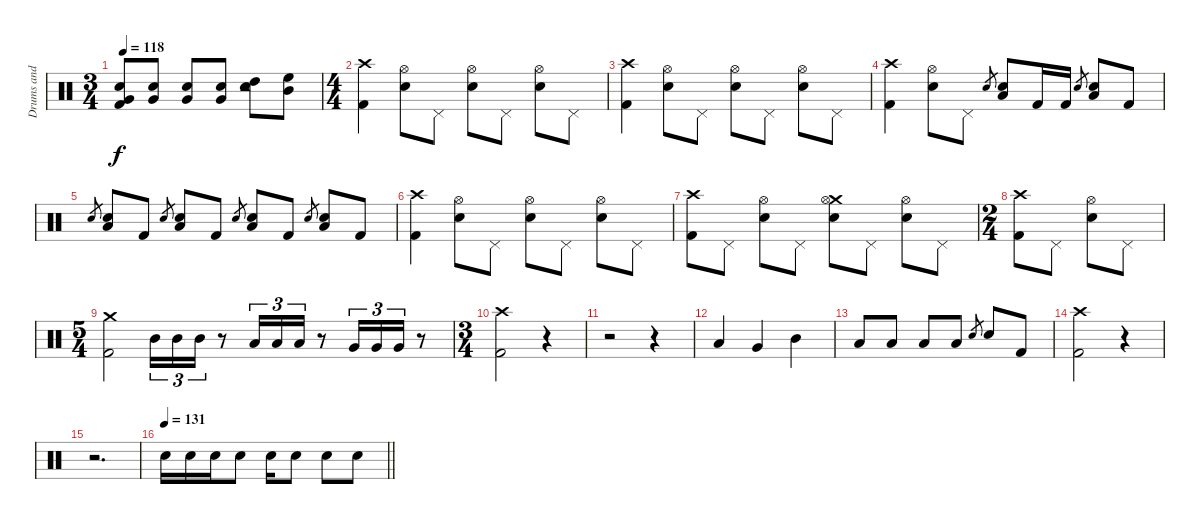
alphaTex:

\track ("Drums and percussion" "Drums and ") {instrument percussion}
\staff {score}
\articulation defaults
\ts (3 4)
\tempo 118
\clef neutral
\ks c
("Very Low Tom (hit)" "Snare (hit) 2" "Kick (hit) 2").8{dy f} ("Very Low Tom (hit)" "Snare (hit) 2").8 ("Very Low Tom (hit)" "Snare (hit) 2").8 ("Very Low Tom (hit)" "Snare (hit) 2").8 ("High Tom (hit)" "Tambourine (hit)" "Snare (hit) 2").8 ("Mid Tom (hit)" "High Floor Tom (hit)").8 |
\ts (4 4)
("Crash high (hit)" "Kick (hit) 2").4 ("Hi-Hat (open)" "Snare (hit) 2").8 "Pedal Hi-Hat (hit)".8 ("Hi-Hat (open)" "Snare (hit) 2").8 "Pedal Hi-Hat (hit)".8 ("Hi-Hat (open)" "Snare (hit) 2").8 "Pedal Hi-Hat (hit)".8 |
("Crash high (hit)" "Kick (hit) 2").4 ("Hi-Hat (open)" "Snare (hit) 2").8 "Pedal Hi-Hat (hit)".8 ("Hi-Hat (open)" "Snare (hit) 2").8 "Pedal Hi-Hat (hit)".8 ("Hi-Hat (open)" "Snare (hit) 2").8 "Pedal Hi-Hat (hit)".8 |
("Crash high (hit)" "Kick (hit) 2").4 ("Hi-Hat (open)" "Snare (hit) 2").8 "Pedal Hi-Hat (hit)".8 "Snare (hit) 2".8{gr} ("Low Tom (hit)" "Snare (hit) 2").8 "Kick (hit) 2".16 "Kick (hit) 2".16 "Snare (hit) 2".8{gr} ("Low Tom (hit)" "Snare (hit) 2").8 "Kick (hit) 2".8 |
"Snare (hit) 2".8{gr} ("Low Tom (hit)" "Snare (hit) 2").8 "Kick (hit) 2".8 "Snare (hit) 2".8{gr} ("Low Tom (hit)" "Snare (hit) 2").8 "Kick (hit) 2".8 "Snare (hit) 2".8{gr} ("Low Tom (hit)" "Snare (hit) 2").8 "Kick (hit) 2".8 "Snare (hit) 2".8{gr} ("Low Tom (hit)" "Snare (hit) 2").8 "Kick (hit) 2".8 |
("Crash high (hit)" "Kick (hit) 2").4 ("Hi-Hat (open)" "Snare (hit) 2").8 "Pedal Hi-Hat (hit)".8 ("Hi-Hat (open)" "Snare (hit) 2").8 "Pedal Hi-Hat (hit)".8 ("Hi-Hat (open)" "Snare (hit) 2").8 "Pedal Hi-Hat (hit)".8 |
("Crash high (hit)" "Kick (hit) 2").8 "Pedal Hi-Hat (hit)".8 ("Hi-Hat (open)" "Snare (hit) 2").8 "Pedal Hi-Hat (hit)".8 ("Crash medium (hit)" "Hi-Hat (open)" "Snare (hit) 2").8 "Pedal Hi-Hat (hit)".8 ("Hi-Hat (open)" "Snare (hit) 2").8 "Pedal Hi-Hat (hit)".8 |
\ts (2 4)
("Crash high (hit)" "Kick (hit) 2").8 "Pedal Hi-Hat (hit)".8 ("Hi-Hat (open)" "Snare (hit) 2").8 "Pedal Hi-Hat (hit)".8 |
\ts (5 4)
("Crash medium (hit)" "Kick (hit) 2").2 "Mid Tom (hit)".16{tu (3 2)} "Mid Tom (hit)".16{tu (3 2)} "Mid Tom (hit)".16{tu (3 2)} r.8 "Low Tom (hit)".16{tu (3 2)} "Low Tom (hit)".16{tu (3 2)} "Low Tom (hit)".16{tu (3 2)} r.8 "Very Low Tom (hit)".16{tu (3 2)} "Very Low Tom (hit)".16{tu (3 2)} "Very Low Tom (hit)".16{tu (3 2)} r.8 |
\ts (3 4)
("Crash high (hit)" "Kick (hit) 2").2 r.4 |
r.2 r.4 |
"Low Tom (hit)".4 "Very Low Tom (hit)".4 "Mid Tom (hit)".4 |
"Low Tom (hit)".8 "Low Tom (hit)".8 "Low Tom (hit)".8 "Low Floor Tom (hit)".8 "Snare (hit) 2".8{gr} "Snare (hit) 2".8 "Kick (hit) 2".8 |
("Crash high (hit)" "Kick (hit) 2").2 r.4 |
r.2{d} |
\tempo 131
\barLineRight lightlight "Snare (hit) 2".16 "Snare (hit) 2".16 "Snare (hit) 2".16 "Snare (hit) 2".8 "Snare (hit) 2".16 "Snare (hit) 2".8 "Snare (hit) 2".8 "Snare (hit) 2".8
